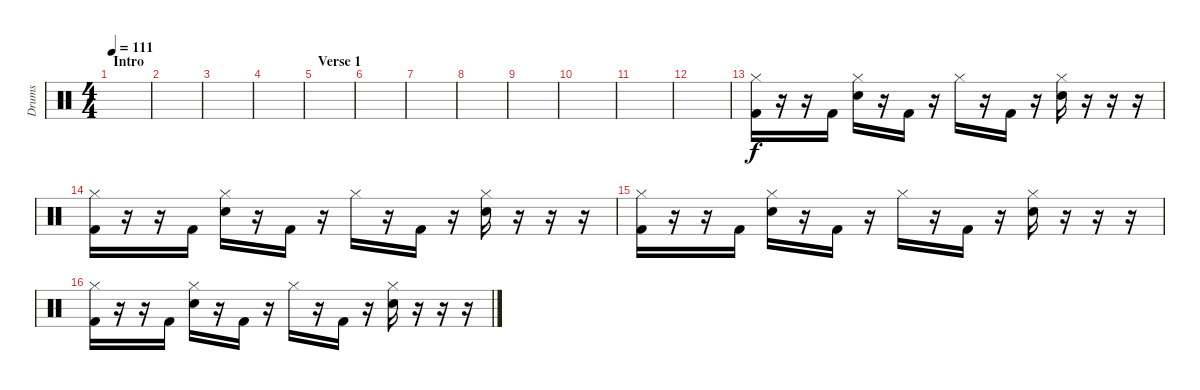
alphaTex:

\track ("Drums" "Drums") {instrument percussion}
\staff {score}
\articulation defaults
\ts (4 4)
\section ("" "Intro")
\tempo 111
\clef neutral
\ks c
|
|
|
|
\section ("" "Verse 1")
|
|
|
|
|
|
|
|
("Hi-Hat (closed)" "Kick (hit) 2").16 r.16 r.16 "Kick (hit) 2".16 ("Hi-Hat (closed)" "Snare (hit) 2").16 r.16 "Kick (hit) 2".16 r.16 "Hi-Hat (closed)".16 r.16 "Kick (hit) 2".16 r.16 ("Hi-Hat (closed)" "Snare (hit) 2").16 r.16 r.16 r.16 |
("Hi-Hat (closed)" "Kick (hit) 2").16 r.16 r.16 "Kick (hit) 2".16 ("Hi-Hat (closed)" "Snare (hit) 2").16 r.16 "Kick (hit) 2".16 r.16 "Hi-Hat (closed)".16 r.16 "Kick (hit) 2".16 r.16 ("Hi-Hat (closed)" "Snare (hit) 2").16 r.16 r.16 r.16 |
("Hi-Hat (closed)" "Kick (hit) 2").16 r.16 r.16 "Kick (hit) 2".16 ("Hi-Hat (closed)" "Snare (hit) 2").16 r.16 "Kick (hit) 2".16 r.16 "Hi-Hat (closed)".16 r.16 "Kick (hit) 2".16 r.16 ("Hi-Hat (closed)" "Snare (hit) 2").16 r.16 r.16 r.16 |
("Hi-Hat (closed)" "Kick (hit) 2").16 r.16 r.16 "Kick (hit) 2".16 ("Hi-Hat (closed)" "Snare (hit) 2").16 r.16 "Kick (hit) 2".16 r.16 "Hi-Hat (closed)".16 r.16 "Kick (hit) 2".16 r.16 ("Hi-Hat (closed)" "Snare (hit) 2").16 r.16 r.16 r.16
